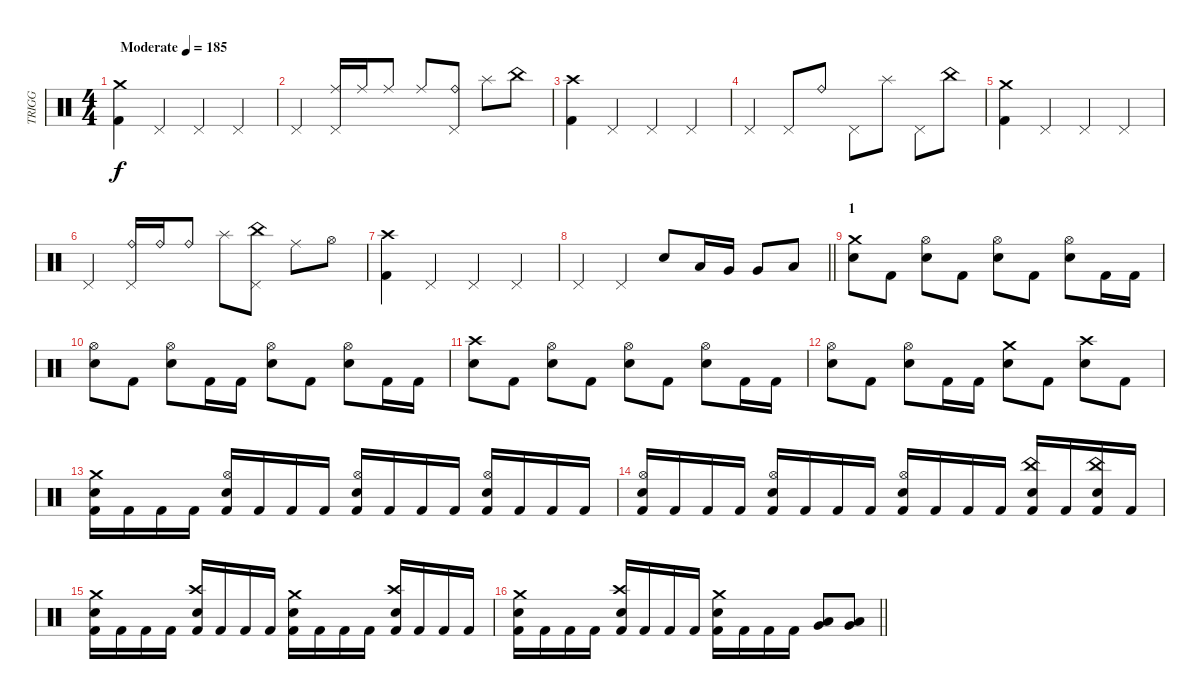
\track ("TRIGG" "TRIGG") {instrument percussion}
\staff {score}
\articulation defaults
\ts (4 4)
\tempo (185 "Moderate")
\clef neutral
\ks c
("Crash medium (hit)" "Kick (hit) 2").4{dy f} "Pedal Hi-Hat (hit)".4 "Pedal Hi-Hat (hit)".4 "Pedal Hi-Hat (hit)".4 |
"Pedal Hi-Hat (hit)".4 ("Ride (middle)" "Pedal Hi-Hat (hit)").16 "Ride (middle)".16 "Ride (middle)".8 "Ride (middle)".8 ("Ride (bell)" "Pedal Hi-Hat (hit)").8 "Splash (hit)".8 "China (hit)".8 |
("Crash high (hit)" "Kick (hit) 2").4 "Pedal Hi-Hat (hit)".4 "Pedal Hi-Hat (hit)".4 "Pedal Hi-Hat (hit)".4 |
"Pedal Hi-Hat (hit)".4 "Pedal Hi-Hat (hit)".8 "Ride (bell)".8 "Pedal Hi-Hat (hit)".8 "Splash (hit)".8 "Pedal Hi-Hat (hit)".8 "China (hit)".8 |
("Crash medium (hit)" "Kick (hit) 2").4 "Pedal Hi-Hat (hit)".4 "Pedal Hi-Hat (hit)".4 "Pedal Hi-Hat (hit)".4 |
"Pedal Hi-Hat (hit)".4 ("Ride (bell)" "Pedal Hi-Hat (hit)").16 "Ride (bell)".16 "Ride (bell)".8 "Splash (hit)".8 ("China (hit)" "Pedal Hi-Hat (hit)").8 "Ride (middle)".8 "Hi-Hat (open)".8 |
("Crash high (hit)" "Kick (hit) 2").4 "Pedal Hi-Hat (hit)".4 "Pedal Hi-Hat (hit)".4 "Pedal Hi-Hat (hit)".4 |
\barLineRight lightlight "Pedal Hi-Hat (hit)".4 "Pedal Hi-Hat (hit)".4 "Electric Snare (hit)".8 "Low Tom (hit)".16 "Very Low Tom (hit)".16 "Very Low Tom (hit)".8 "Low Floor Tom (hit)".8
|
\section ("" "1")
("Crash medium (hit)" "Electric Snare (hit)").8 "Kick (hit) 2".8 ("Hi-Hat (open)" "Electric Snare (hit)").8 "Kick (hit) 2".8 ("Hi-Hat (open)" "Electric Snare (hit)").8 "Kick (hit) 2".8 ("Hi-Hat (open)" "Electric Snare (hit)").8 "Kick (hit) 2".16 "Kick (hit) 2".16 |
("Hi-Hat (open)" "Electric Snare (hit)").8 "Kick (hit) 2".8 ("Hi-Hat (open)" "Electric Snare (hit)").8 "Kick (hit) 2".16 "Kick (hit) 2".16 ("Hi-Hat (open)" "Electric Snare (hit)").8 "Kick (hit) 2".8 ("Hi-Hat (open)" "Electric Snare (hit)").8 "Kick (hit) 2".16 "Kick (hit) 2".16 |
("Crash high (hit)" "Electric Snare (hit)").8 "Kick (hit) 2".8 ("Hi-Hat (open)" "Electric Snare (hit)").8 "Kick (hit) 2".8 ("Hi-Hat (open)" "Electric Snare (hit)").8 "Kick (hit) 2".8 ("Hi-Hat (open)" "Electric Snare (hit)").8 "Kick (hit) 2".16 "Kick (hit) 2".16 |
("Hi-Hat (open)" "Electric Snare (hit)").8 "Kick (hit) 2".8 ("Hi-Hat (open)" "Electric Snare (hit)").8 "Kick (hit) 2".16 "Kick (hit) 2".16 ("Crash medium (hit)" "Electric Snare (hit)").8 "Kick (hit) 2".8 ("Crash high (hit)" "Electric Snare (hit)").8 "Kick (hit) 2".8 |
("Crash medium (hit)" "Electric Snare (hit)" "Kick (hit) 2").16 "Kick (hit) 2".16 "Kick (hit) 2".16 "Kick (hit) 2".16 ("Hi-Hat (open)" "Electric Snare (hit)" "Kick (hit) 2").16 "Kick (hit) 2".16 "Kick (hit) 2".16 "Kick (hit) 2".16 ("Hi-Hat (open)" "Electric Snare (hit)" "Kick (hit) 2").16 "Kick (hit) 2".16 "Kick (hit) 2".16 "Kick (hit) 2".16 ("Hi-Hat (open)" "Electric Snare (hit)" "Kick (hit) 2").16 "Kick (hit) 2".16 "Kick (hit) 2".16 "Kick (hit) 2".16 |
("Hi-Hat (open)" "Electric Snare (hit)" "Kick (hit) 2").16 "Kick (hit) 2".16 "Kick (hit) 2".16 "Kick (hit) 2".16 ("Hi-Hat (open)" "Electric Snare (hit)" "Kick (hit) 2").16 "Kick (hit) 2".16 "Kick (hit) 2".16 "Kick (hit) 2".16 ("Hi-Hat (open)" "Electric Snare (hit)" "Kick (hit) 2").16 "Kick (hit) 2".16 "Kick (hit) 2".16 "Kick (hit) 2".16 ("China (hit)" "Electric Snare (hit)" "Kick (hit) 2").16 "Kick (hit) 2".16 ("China (hit)" "Electric Snare (hit)" "Kick (hit) 2").16 "Kick (hit) 2".16 |
("Crash medium (hit)" "Electric Snare (hit)" "Kick (hit) 2").16 "Kick (hit) 2".16 "Kick (hit) 2".16 "Kick (hit) 2".16 ("Crash high (hit)" "Electric Snare (hit)" "Kick (hit) 2").16 "Kick (hit) 2".16 "Kick (hit) 2".16 "Kick (hit) 2".16 ("Crash medium (hit)" "Electric Snare (hit)" "Kick (hit) 2").16 "Kick (hit) 2".16 "Kick (hit) 2".16 "Kick (hit) 2".16 ("Crash high (hit)" "Electric Snare (hit)" "Kick (hit) 2").16 "Kick (hit) 2".16 "Kick (hit) 2".16 "Kick (hit) 2".16 |
\barLineRight lightlight
("Crash medium (hit)" "Electric Snare (hit)" "Kick (hit) 2").16 "Kick (hit) 2".16 "Kick (hit) 2".16 "Kick (hit) 2".16 ("Crash high (hit)" "Electric Snare (hit)" "Kick (hit) 2").16 "Kick (hit) 2".16 "Kick (hit) 2".16 "Kick (hit) 2".16 ("Crash medium (hit)" "Electric Snare (hit)" "Kick (hit) 2").16 "Kick (hit) 2".16 "Kick (hit) 2".16 "Kick (hit) 2".16 ("Low Tom (hit)" "Very Low Tom (hit)").8 ("Very Low Tom (hit)" "Low Floor Tom (hit)").8
